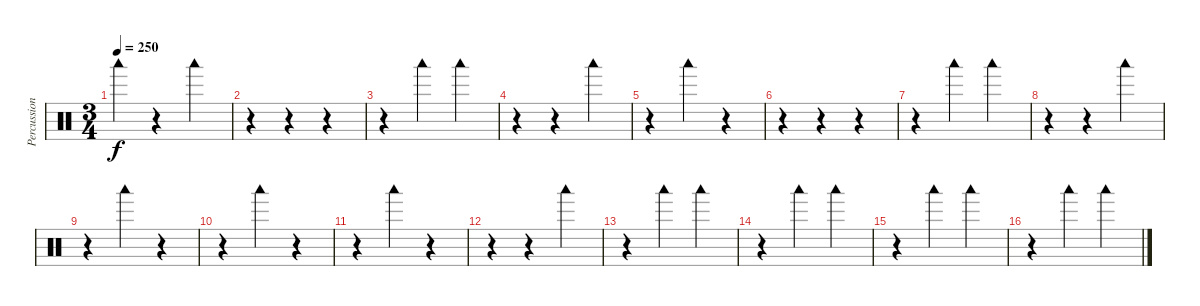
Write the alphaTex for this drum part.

\track ("Percussions" "Percussion") {instrument percussion}
\staff {score}
\articulation defaults
\ts (3 4)
\tempo 250
\clef neutral
\ks c "Woodblock low (hit)".4{dy f}
r.4 "Woodblock low (hit)".4 |
r.4 r.4 r.4 |
r.4 "Woodblock low (hit)".4 "Woodblock low (hit)".4 |
r.4 r.4 "Woodblock low (hit)".4 |
r.4 "Woodblock low (hit)".4 r.4 |
r.4 r.4 r.4 |
r.4 "Woodblock low (hit)".4 "Woodblock low (hit)".4 |
r.4 r.4 "Woodblock low (hit)".4 |
r.4 "Woodblock low (hit)".4 r.4 |
r.4 "Woodblock low (hit)".4 r.4 |
r.4 "Woodblock low (hit)".4 r.4 |
r.4 r.4 "Woodblock low (hit)".4 |
r.4 "Woodblock low (hit)".4 "Woodblock low (hit)".4 |
r.4 "Woodblock low (hit)".4 "Woodblock low (hit)".4 |
r.4 "Woodblock low (hit)".4 "Woodblock low (hit)".4 |
r.4 "Woodblock low (hit)".4 "Woodblock low (hit)".4
